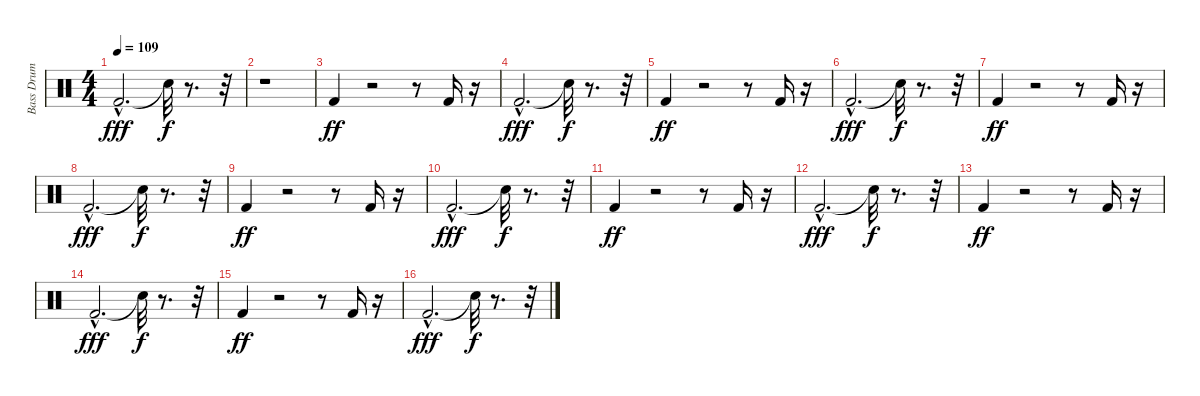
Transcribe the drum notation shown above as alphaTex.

\track ("Bass Drum" "Bass Drum") {instrument percussion}
\staff {score}
\articulation defaults
\ts (4 4)
\tempo 109
\clef neutral
\ks c "Kick (hit) 2"{hac}.2{d dy fff} "Snare (hit)"{t}.32{dy f}
r.8{d} r.32 |
r.1 |
"Kick (hit) 2".4{dy ff} r.2 r.8 "Kick (hit) 2".16 r.16 |
"Kick (hit) 2"{hac}.2{d dy fff} "Snare (hit)"{t}.32{dy f} r.8{d} r.32 |
"Kick (hit) 2".4{dy ff} r.2 r.8 "Kick (hit) 2".16 r.16 |
"Kick (hit) 2"{hac}.2{d dy fff} "Snare (hit)"{t}.32{dy f} r.8{d} r.32 |
"Kick (hit) 2".4{dy ff} r.2 r.8 "Kick (hit) 2".16 r.16 |
"Kick (hit) 2"{hac}.2{d dy fff} "Snare (hit)"{t}.32{dy f} r.8{d} r.32 |
"Kick (hit) 2".4{dy ff} r.2 r.8 "Kick (hit) 2".16 r.16 |
"Kick (hit) 2"{hac}.2{d dy fff} "Snare (hit)"{t}.32{dy f} r.8{d} r.32 |
"Kick (hit) 2".4{dy ff} r.2 r.8 "Kick (hit) 2".16 r.16 |
"Kick (hit) 2"{hac}.2{d dy fff} "Snare (hit)"{t}.32{dy f} r.8{d} r.32 |
"Kick (hit) 2".4{dy ff} r.2 r.8 "Kick (hit) 2".16 r.16 |
"Kick (hit) 2"{hac}.2{d dy fff} "Snare (hit)"{t}.32{dy f} r.8{d} r.32 |
"Kick (hit) 2".4{dy ff} r.2 r.8 "Kick (hit) 2".16 r.16 |
"Kick (hit) 2"{hac}.2{d dy fff} "Snare (hit)"{t}.32{dy f} r.8{d} r.32
